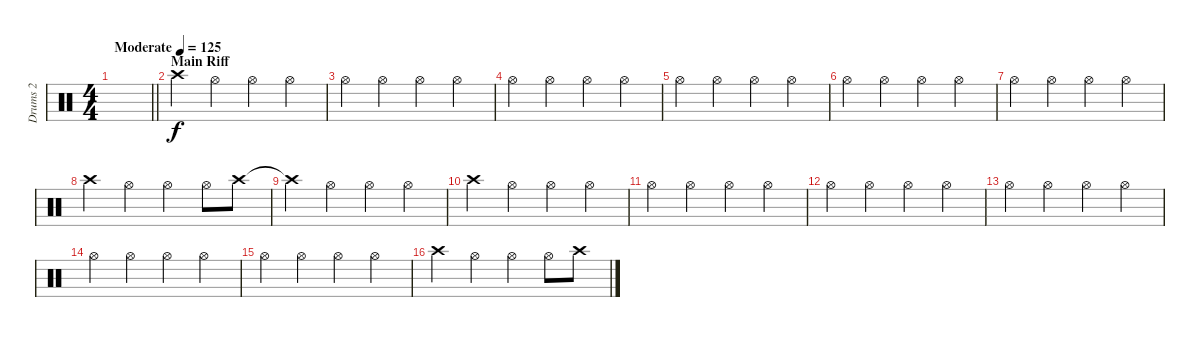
\track ("Drums 2" "Drums 2") {instrument percussion}
\staff {score}
\articulation defaults
\ts (4 4)
\tempo (125 "Moderate")
\clef neutral
\barLineRight lightlight
\ks c
|
\section ("" "Main Riff")
"Crash high (hit)".4 "Hi-Hat (open)".4 "Hi-Hat (open)".4 "Hi-Hat (open)".4 |
"Hi-Hat (open)".4 "Hi-Hat (open)".4 "Hi-Hat (open)".4 "Hi-Hat (open)".4 |
"Hi-Hat (open)".4 "Hi-Hat (open)".4 "Hi-Hat (open)".4 "Hi-Hat (open)".4 |
"Hi-Hat (open)".4 "Hi-Hat (open)".4 "Hi-Hat (open)".4 "Hi-Hat (open)".4 |
"Hi-Hat (open)".4 "Hi-Hat (open)".4 "Hi-Hat (open)".4 "Hi-Hat (open)".4 |
"Hi-Hat (open)".4 "Hi-Hat (open)".4 "Hi-Hat (open)".4 "Hi-Hat (open)".4 |
"Crash high (hit)".4 "Hi-Hat (open)".4 "Hi-Hat (open)".4 "Hi-Hat (open)".8 "Crash high (hit)".8 |
"Crash high (hit)"{t}.4 "Hi-Hat (open)".4 "Hi-Hat (open)".4 "Hi-Hat (open)".4 |
"Crash high (hit)".4 "Hi-Hat (open)".4 "Hi-Hat (open)".4 "Hi-Hat (open)".4 |
"Hi-Hat (open)".4 "Hi-Hat (open)".4 "Hi-Hat (open)".4 "Hi-Hat (open)".4 |
"Hi-Hat (open)".4 "Hi-Hat (open)".4 "Hi-Hat (open)".4 "Hi-Hat (open)".4 |
"Hi-Hat (open)".4 "Hi-Hat (open)".4 "Hi-Hat (open)".4 "Hi-Hat (open)".4 |
"Hi-Hat (open)".4 "Hi-Hat (open)".4 "Hi-Hat (open)".4 "Hi-Hat (open)".4 |
"Hi-Hat (open)".4 "Hi-Hat (open)".4 "Hi-Hat (open)".4 "Hi-Hat (open)".4 |
"Crash high (hit)".4 "Hi-Hat (open)".4 "Hi-Hat (open)".4 "Hi-Hat (open)".8 "Crash high (hit)".8
